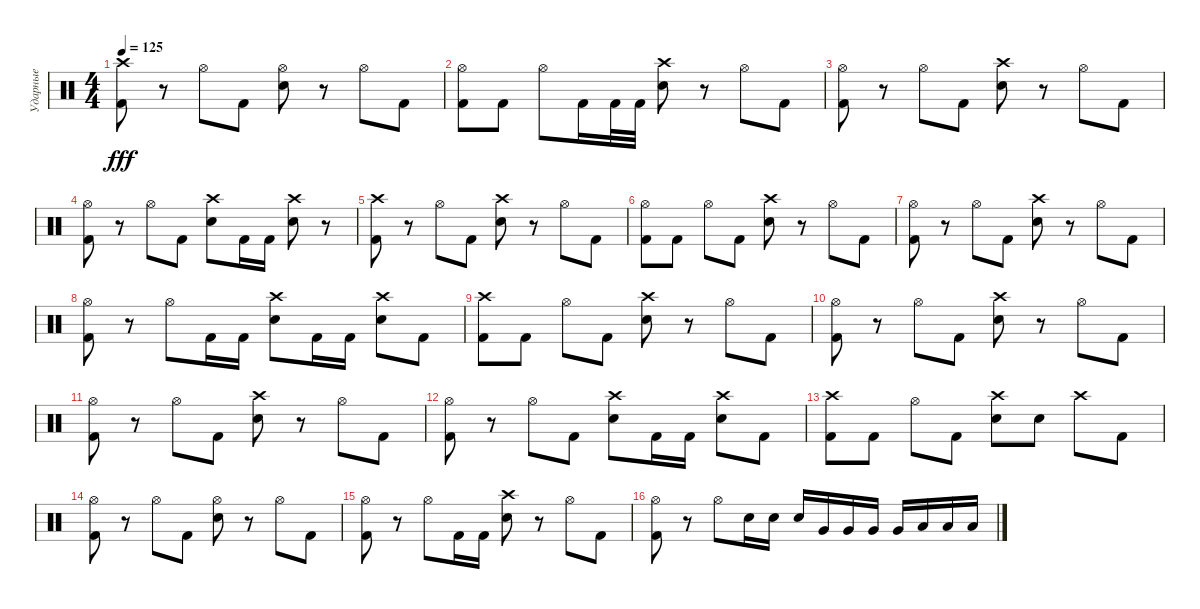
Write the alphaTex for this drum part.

\track ("Ударные" "Ударные") {instrument percussion}
\staff {score}
\articulation defaults
\ts (4 4)
\tempo 125
\clef neutral
\ks c
("Crash high (hit)" "Kick (hit) 2").8{dy fff} r.8 "Hi-Hat (open)".8 "Kick (hit) 2".8 ("Hi-Hat (open)" "Electric Snare (hit)").8 r.8 "Hi-Hat (open)".8 "Kick (hit) 2".8 |
("Hi-Hat (open)" "Kick (hit) 2").8 "Kick (hit) 2".8 "Hi-Hat (open)".8 "Kick (hit) 2".16 "Kick (hit) 2".32 "Kick (hit) 2".32 ("Crash high (hit)" "Electric Snare (hit)").8 r.8 "Hi-Hat (open)".8 "Kick (hit) 2".8 |
("Hi-Hat (open)" "Kick (hit) 2").8 r.8 "Hi-Hat (open)".8 "Kick (hit) 2".8 ("Crash high (hit)" "Electric Snare (hit)").8 r.8 "Hi-Hat (open)".8 "Kick (hit) 2".8 |
("Hi-Hat (open)" "Kick (hit) 2").8 r.8 "Hi-Hat (open)".8 "Kick (hit) 2".8 ("Crash high (hit)" "Electric Snare (hit)").8 "Kick (hit) 2".16 "Kick (hit) 2".16 ("Crash high (hit)" "Electric Snare (hit)").8 r.8 |
("Crash high (hit)" "Kick (hit) 2").8 r.8 "Hi-Hat (open)".8 "Kick (hit) 2".8 ("Crash high (hit)" "Electric Snare (hit)").8 r.8 "Hi-Hat (open)".8 "Kick (hit) 2".8 |
("Hi-Hat (open)" "Kick (hit) 2").8 "Kick (hit) 2".8 "Hi-Hat (open)".8 "Kick (hit) 2".8 ("Crash high (hit)" "Electric Snare (hit)").8 r.8 "Hi-Hat (open)".8 "Kick (hit) 2".8 |
("Hi-Hat (open)" "Kick (hit) 2").8 r.8 "Hi-Hat (open)".8 "Kick (hit) 2".8 ("Crash high (hit)" "Electric Snare (hit)").8 r.8 "Hi-Hat (open)".8 "Kick (hit) 2".8 |
("Hi-Hat (open)" "Kick (hit) 2").8 r.8 "Hi-Hat (open)".8 "Kick (hit) 2".16 "Kick (hit) 2".16 ("Crash high (hit)" "Electric Snare (hit)").8 "Kick (hit) 2".16 "Kick (hit) 2".16 ("Crash high (hit)" "Electric Snare (hit)").8 "Kick (hit) 2".8 |
("Crash high (hit)" "Kick (hit) 2").8 "Kick (hit) 2".8 "Hi-Hat (open)".8 "Kick (hit) 2".8 ("Crash high (hit)" "Electric Snare (hit)").8 r.8 "Hi-Hat (open)".8 "Kick (hit) 2".8 |
("Hi-Hat (open)" "Kick (hit) 2").8 r.8 "Hi-Hat (open)".8 "Kick (hit) 2".8 ("Crash high (hit)" "Electric Snare (hit)").8 r.8 "Hi-Hat (open)".8 "Kick (hit) 2".8 |
("Hi-Hat (open)" "Kick (hit) 2").8 r.8 "Hi-Hat (open)".8 "Kick (hit) 2".8 ("Crash high (hit)" "Electric Snare (hit)").8 r.8 "Hi-Hat (open)".8 "Kick (hit) 2".8 |
("Hi-Hat (open)" "Kick (hit) 2").8 r.8 "Hi-Hat (open)".8 "Kick (hit) 2".8 ("Crash high (hit)" "Electric Snare (hit)").8 "Kick (hit) 2".16 "Kick (hit) 2".16 ("Crash high (hit)" "Electric Snare (hit)").8 "Kick (hit) 2".8 |
("Crash high (hit)" "Kick (hit) 2").8 "Kick (hit) 2".8 "Hi-Hat (open)".8 "Kick (hit) 2".8 ("Crash high (hit)" "Electric Snare (hit)").8 "Electric Snare (hit)".8 "Crash high (hit)".8 "Kick (hit) 2".8 |
("Hi-Hat (open)" "Kick (hit) 2").8 r.8 "Hi-Hat (open)".8 "Kick (hit) 2".8 ("Hi-Hat (open)" "Electric Snare (hit)").8 r.8 "Hi-Hat (open)".8 "Kick (hit) 2".8 |
("Hi-Hat (open)" "Kick (hit) 2").8 r.8 "Hi-Hat (open)".8 "Kick (hit) 2".16 "Kick (hit) 2".16 ("Crash high (hit)" "Electric Snare (hit)").8 r.8 "Hi-Hat (open)".8 "Kick (hit) 2".8 |
("Hi-Hat (open)" "Kick (hit) 2").8 r.8 "Hi-Hat (open)".8 "Electric Snare (hit)".16 "Electric Snare (hit)".16 "Electric Snare (hit)".16 "Very Low Tom (hit)".16 "Very Low Tom (hit)".16 "Very Low Tom (hit)".16 "Very Low Tom (hit)".16 "Low Floor Tom (hit)".16 "Low Floor Tom (hit)".16 "Low Floor Tom (hit)".16
